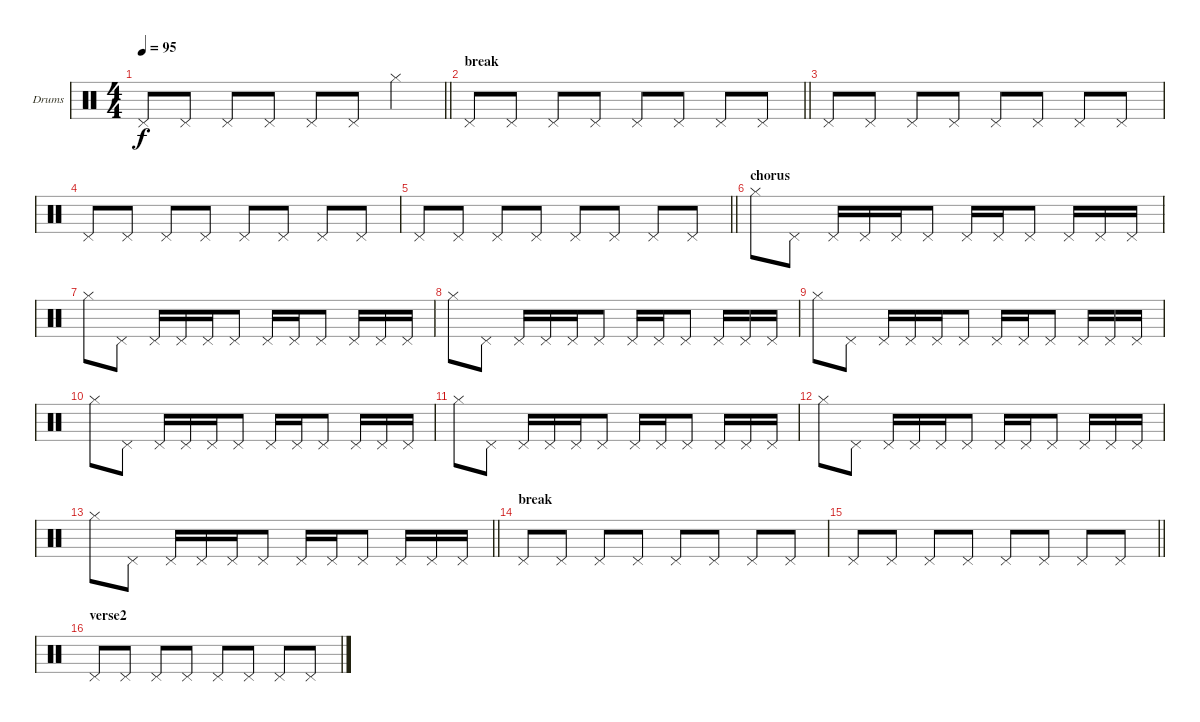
\bracketExtendMode groupsimilarinstruments
\firstSystemTrackNameOrientation horizontal
\otherSystemsTrackNameOrientation horizontal
\track ("Drumkit" "Drums") {instrument percussion}
\staff {score}
\articulation defaults
\ts (4 4)
\tempo 95
\clef neutral
\barLineRight lightlight
\ks c "Pedal Hi-Hat (hit)".8{dy f} "Pedal Hi-Hat (hit)".8 "Pedal Hi-Hat (hit)".8 "Pedal Hi-Hat (hit)".8 "Pedal Hi-Hat (hit)".8 "Pedal Hi-Hat (hit)".8 "Hi-Hat (closed)".4
|
\section ("" "break")
\barLineRight lightlight "Pedal Hi-Hat (hit)".8 "Pedal Hi-Hat (hit)".8 "Pedal Hi-Hat (hit)".8 "Pedal Hi-Hat (hit)".8 "Pedal Hi-Hat (hit)".8 "Pedal Hi-Hat (hit)".8 "Pedal Hi-Hat (hit)".8 "Pedal Hi-Hat (hit)".8
|
"Pedal Hi-Hat (hit)".8 "Pedal Hi-Hat (hit)".8 "Pedal Hi-Hat (hit)".8 "Pedal Hi-Hat (hit)".8 "Pedal Hi-Hat (hit)".8 "Pedal Hi-Hat (hit)".8 "Pedal Hi-Hat (hit)".8 "Pedal Hi-Hat (hit)".8 |
"Pedal Hi-Hat (hit)".8 "Pedal Hi-Hat (hit)".8 "Pedal Hi-Hat (hit)".8 "Pedal Hi-Hat (hit)".8 "Pedal Hi-Hat (hit)".8 "Pedal Hi-Hat (hit)".8 "Pedal Hi-Hat (hit)".8 "Pedal Hi-Hat (hit)".8 |
\barLineRight lightlight "Pedal Hi-Hat (hit)".8 "Pedal Hi-Hat (hit)".8 "Pedal Hi-Hat (hit)".8 "Pedal Hi-Hat (hit)".8 "Pedal Hi-Hat (hit)".8 "Pedal Hi-Hat (hit)".8 "Pedal Hi-Hat (hit)".8 "Pedal Hi-Hat (hit)".8
|
\section ("" "chorus")
"Hi-Hat (closed)".8 "Pedal Hi-Hat (hit)".8 "Pedal Hi-Hat (hit)".16 "Pedal Hi-Hat (hit)".16 "Pedal Hi-Hat (hit)".16 "Pedal Hi-Hat (hit)".8 "Pedal Hi-Hat (hit)".16 "Pedal Hi-Hat (hit)".16 "Pedal Hi-Hat (hit)".8 "Pedal Hi-Hat (hit)".16 "Pedal Hi-Hat (hit)".16 "Pedal Hi-Hat (hit)".16 |
"Hi-Hat (closed)".8 "Pedal Hi-Hat (hit)".8 "Pedal Hi-Hat (hit)".16 "Pedal Hi-Hat (hit)".16 "Pedal Hi-Hat (hit)".16 "Pedal Hi-Hat (hit)".8 "Pedal Hi-Hat (hit)".16 "Pedal Hi-Hat (hit)".16 "Pedal Hi-Hat (hit)".8 "Pedal Hi-Hat (hit)".16 "Pedal Hi-Hat (hit)".16 "Pedal Hi-Hat (hit)".16 |
"Hi-Hat (closed)".8 "Pedal Hi-Hat (hit)".8 "Pedal Hi-Hat (hit)".16 "Pedal Hi-Hat (hit)".16 "Pedal Hi-Hat (hit)".16 "Pedal Hi-Hat (hit)".8 "Pedal Hi-Hat (hit)".16 "Pedal Hi-Hat (hit)".16 "Pedal Hi-Hat (hit)".8 "Pedal Hi-Hat (hit)".16 "Pedal Hi-Hat (hit)".16 "Pedal Hi-Hat (hit)".16 |
"Hi-Hat (closed)".8 "Pedal Hi-Hat (hit)".8 "Pedal Hi-Hat (hit)".16 "Pedal Hi-Hat (hit)".16 "Pedal Hi-Hat (hit)".16 "Pedal Hi-Hat (hit)".8 "Pedal Hi-Hat (hit)".16 "Pedal Hi-Hat (hit)".16 "Pedal Hi-Hat (hit)".8 "Pedal Hi-Hat (hit)".16 "Pedal Hi-Hat (hit)".16 "Pedal Hi-Hat (hit)".16 |
"Hi-Hat (closed)".8 "Pedal Hi-Hat (hit)".8 "Pedal Hi-Hat (hit)".16 "Pedal Hi-Hat (hit)".16 "Pedal Hi-Hat (hit)".16 "Pedal Hi-Hat (hit)".8 "Pedal Hi-Hat (hit)".16 "Pedal Hi-Hat (hit)".16 "Pedal Hi-Hat (hit)".8 "Pedal Hi-Hat (hit)".16 "Pedal Hi-Hat (hit)".16 "Pedal Hi-Hat (hit)".16 |
"Hi-Hat (closed)".8 "Pedal Hi-Hat (hit)".8 "Pedal Hi-Hat (hit)".16 "Pedal Hi-Hat (hit)".16 "Pedal Hi-Hat (hit)".16 "Pedal Hi-Hat (hit)".8 "Pedal Hi-Hat (hit)".16 "Pedal Hi-Hat (hit)".16 "Pedal Hi-Hat (hit)".8 "Pedal Hi-Hat (hit)".16 "Pedal Hi-Hat (hit)".16 "Pedal Hi-Hat (hit)".16 |
"Hi-Hat (closed)".8 "Pedal Hi-Hat (hit)".8 "Pedal Hi-Hat (hit)".16 "Pedal Hi-Hat (hit)".16 "Pedal Hi-Hat (hit)".16 "Pedal Hi-Hat (hit)".8 "Pedal Hi-Hat (hit)".16 "Pedal Hi-Hat (hit)".16 "Pedal Hi-Hat (hit)".8 "Pedal Hi-Hat (hit)".16 "Pedal Hi-Hat (hit)".16 "Pedal Hi-Hat (hit)".16 |
\barLineRight lightlight "Hi-Hat (closed)".8 "Pedal Hi-Hat (hit)".8 "Pedal Hi-Hat (hit)".16 "Pedal Hi-Hat (hit)".16 "Pedal Hi-Hat (hit)".16 "Pedal Hi-Hat (hit)".8 "Pedal Hi-Hat (hit)".16 "Pedal Hi-Hat (hit)".16 "Pedal Hi-Hat (hit)".8 "Pedal Hi-Hat (hit)".16 "Pedal Hi-Hat (hit)".16 "Pedal Hi-Hat (hit)".16
|
\section ("" "break")
"Pedal Hi-Hat (hit)".8 "Pedal Hi-Hat (hit)".8 "Pedal Hi-Hat (hit)".8 "Pedal Hi-Hat (hit)".8 "Pedal Hi-Hat (hit)".8 "Pedal Hi-Hat (hit)".8 "Pedal Hi-Hat (hit)".8 "Pedal Hi-Hat (hit)".8 |
\barLineRight lightlight "Pedal Hi-Hat (hit)".8 "Pedal Hi-Hat (hit)".8 "Pedal Hi-Hat (hit)".8 "Pedal Hi-Hat (hit)".8 "Pedal Hi-Hat (hit)".8 "Pedal Hi-Hat (hit)".8 "Pedal Hi-Hat (hit)".8 "Pedal Hi-Hat (hit)".8
|
\section ("" "verse2")
"Pedal Hi-Hat (hit)".8 "Pedal Hi-Hat (hit)".8 "Pedal Hi-Hat (hit)".8 "Pedal Hi-Hat (hit)".8 "Pedal Hi-Hat (hit)".8 "Pedal Hi-Hat (hit)".8 "Pedal Hi-Hat (hit)".8 "Pedal Hi-Hat (hit)".8
